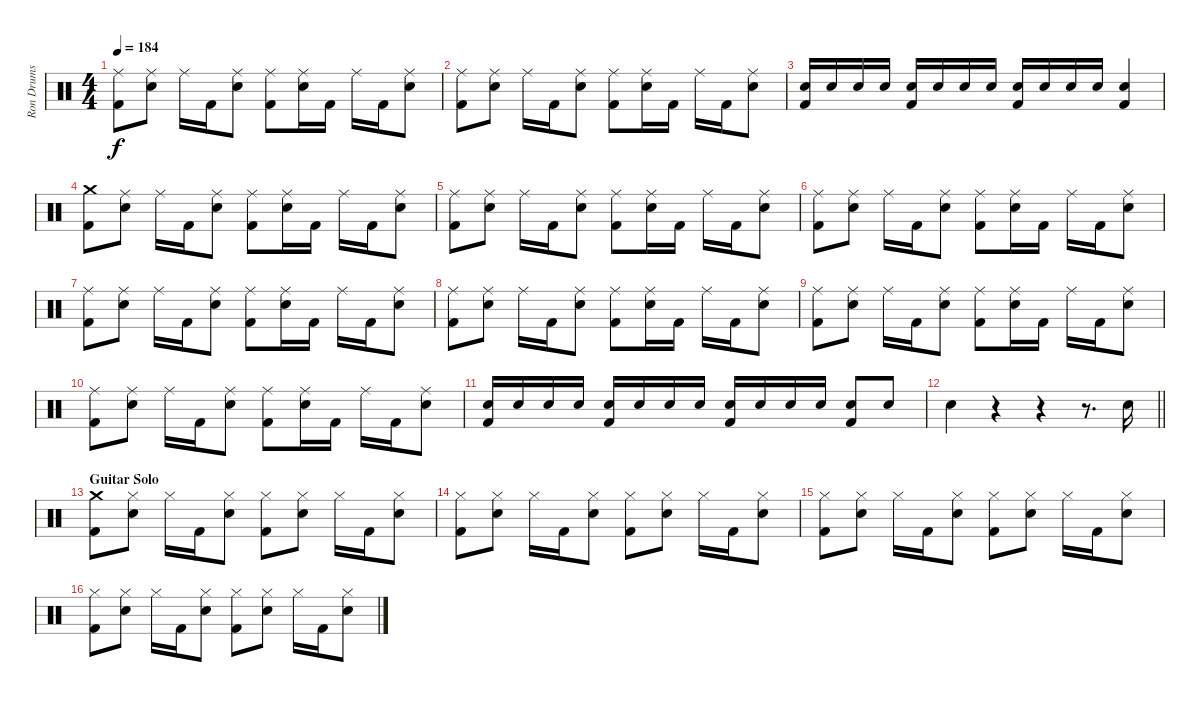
\track ("Ron Drums and Percussion" "Ron Drums ") {instrument percussion}
\staff {score}
\articulation defaults
\ts (4 4)
\tempo 184
\clef neutral
\ks c
("Ride (middle)" "Kick (hit) 2").8{dy f} ("Ride (middle)" "Electric Snare (hit)").8 "Ride (middle)".16 "Kick (hit) 2".16 ("Ride (middle)" "Electric Snare (hit)").8 ("Ride (middle)" "Kick (hit) 2").8 ("Ride (middle)" "Electric Snare (hit)").16 "Kick (hit) 2".16 "Ride (middle)".16 "Kick (hit) 2".16 ("Ride (middle)" "Electric Snare (hit)").8 |
("Ride (middle)" "Kick (hit) 2").8 ("Ride (middle)" "Electric Snare (hit)").8 "Ride (middle)".16 "Kick (hit) 2".16 ("Ride (middle)" "Electric Snare (hit)").8 ("Ride (middle)" "Kick (hit) 2").8 ("Ride (middle)" "Electric Snare (hit)").16 "Kick (hit) 2".16 "Ride (middle)".16 "Kick (hit) 2".16 ("Ride (middle)" "Electric Snare (hit)").8 |
("Electric Snare (hit)" "Kick (hit) 2").16 "Electric Snare (hit)".16 "Electric Snare (hit)".16 "Electric Snare (hit)".16 ("Electric Snare (hit)" "Kick (hit) 2").16 "Electric Snare (hit)".16 "Electric Snare (hit)".16 "Electric Snare (hit)".16 ("Electric Snare (hit)" "Kick (hit) 2").16 "Electric Snare (hit)".16 "Electric Snare (hit)".16 "Electric Snare (hit)".16 ("Electric Snare (hit)" "Kick (hit) 2").4 |
("Crash medium (hit)" "Kick (hit) 2").8 ("Ride (middle)" "Electric Snare (hit)").8 "Ride (middle)".16 "Kick (hit) 2".16 ("Ride (middle)" "Electric Snare (hit)").8 ("Ride (middle)" "Kick (hit) 2").8 ("Ride (middle)" "Electric Snare (hit)").16 "Kick (hit) 2".16 "Ride (middle)".16 "Kick (hit) 2".16 ("Ride (middle)" "Electric Snare (hit)").8 |
("Ride (middle)" "Kick (hit) 2").8 ("Ride (middle)" "Electric Snare (hit)").8 "Ride (middle)".16 "Kick (hit) 2".16 ("Ride (middle)" "Electric Snare (hit)").8 ("Ride (middle)" "Kick (hit) 2").8 ("Ride (middle)" "Electric Snare (hit)").16 "Kick (hit) 2".16 "Ride (middle)".16 "Kick (hit) 2".16 ("Ride (middle)" "Electric Snare (hit)").8 |
("Ride (middle)" "Kick (hit) 2").8 ("Ride (middle)" "Electric Snare (hit)").8 "Ride (middle)".16 "Kick (hit) 2".16 ("Ride (middle)" "Electric Snare (hit)").8 ("Ride (middle)" "Kick (hit) 2").8 ("Ride (middle)" "Electric Snare (hit)").16 "Kick (hit) 2".16 "Ride (middle)".16 "Kick (hit) 2".16 ("Ride (middle)" "Electric Snare (hit)").8 |
("Ride (middle)" "Kick (hit) 2").8 ("Ride (middle)" "Electric Snare (hit)").8 "Ride (middle)".16 "Kick (hit) 2".16 ("Ride (middle)" "Electric Snare (hit)").8 ("Ride (middle)" "Kick (hit) 2").8 ("Ride (middle)" "Electric Snare (hit)").16 "Kick (hit) 2".16 "Ride (middle)".16 "Kick (hit) 2".16 ("Ride (middle)" "Electric Snare (hit)").8 |
("Ride (middle)" "Kick (hit) 2").8 ("Ride (middle)" "Electric Snare (hit)").8 "Ride (middle)".16 "Kick (hit) 2".16 ("Ride (middle)" "Electric Snare (hit)").8 ("Ride (middle)" "Kick (hit) 2").8 ("Ride (middle)" "Electric Snare (hit)").16 "Kick (hit) 2".16 "Ride (middle)".16 "Kick (hit) 2".16 ("Ride (middle)" "Electric Snare (hit)").8 |
("Ride (middle)" "Kick (hit) 2").8 ("Ride (middle)" "Electric Snare (hit)").8 "Ride (middle)".16 "Kick (hit) 2".16 ("Ride (middle)" "Electric Snare (hit)").8 ("Ride (middle)" "Kick (hit) 2").8 ("Ride (middle)" "Electric Snare (hit)").16 "Kick (hit) 2".16 "Ride (middle)".16 "Kick (hit) 2".16 ("Ride (middle)" "Electric Snare (hit)").8 |
("Ride (middle)" "Kick (hit) 2").8 ("Ride (middle)" "Electric Snare (hit)").8 "Ride (middle)".16 "Kick (hit) 2".16 ("Ride (middle)" "Electric Snare (hit)").8 ("Ride (middle)" "Kick (hit) 2").8 ("Ride (middle)" "Electric Snare (hit)").16 "Kick (hit) 2".16 "Ride (middle)".16 "Kick (hit) 2".16 ("Ride (middle)" "Electric Snare (hit)").8 |
("Electric Snare (hit)" "Kick (hit) 2").16 "Electric Snare (hit)".16 "Electric Snare (hit)".16 "Electric Snare (hit)".16 ("Electric Snare (hit)" "Kick (hit) 2").16 "Electric Snare (hit)".16 "Electric Snare (hit)".16 "Electric Snare (hit)".16 ("Electric Snare (hit)" "Kick (hit) 2").16 "Electric Snare (hit)".16 "Electric Snare (hit)".16 "Electric Snare (hit)".16 ("Electric Snare (hit)" "Kick (hit) 2").8 "Electric Snare (hit)".8 |
\barLineRight lightlight "Electric Snare (hit)".4
r.4 r.4 r.8{d} "Electric Snare (hit)".16 |
\section ("" "Guitar Solo")
("Crash medium (hit)" "Kick (hit) 2").8 ("Hi-Hat (closed)" "Electric Snare (hit)").8 "Hi-Hat (closed)".16 "Kick (hit) 2".16 ("Hi-Hat (closed)" "Electric Snare (hit)").8 ("Hi-Hat (closed)" "Kick (hit) 2").8 ("Hi-Hat (closed)" "Electric Snare (hit)").8 "Hi-Hat (closed)".16 "Kick (hit) 2".16 ("Hi-Hat (closed)" "Electric Snare (hit)").8 |
("Hi-Hat (closed)" "Kick (hit) 2").8 ("Hi-Hat (closed)" "Electric Snare (hit)").8 "Hi-Hat (closed)".16 "Kick (hit) 2".16 ("Hi-Hat (closed)" "Electric Snare (hit)").8 ("Hi-Hat (closed)" "Kick (hit) 2").8 ("Hi-Hat (closed)" "Electric Snare (hit)").8 "Hi-Hat (closed)".16 "Kick (hit) 2".16 ("Hi-Hat (closed)" "Electric Snare (hit)").8 |
("Hi-Hat (closed)" "Kick (hit) 2").8 ("Hi-Hat (closed)" "Electric Snare (hit)").8 "Hi-Hat (closed)".16 "Kick (hit) 2".16 ("Hi-Hat (closed)" "Electric Snare (hit)").8 ("Hi-Hat (closed)" "Kick (hit) 2").8 ("Hi-Hat (closed)" "Electric Snare (hit)").8 "Hi-Hat (closed)".16 "Kick (hit) 2".16 ("Hi-Hat (closed)" "Electric Snare (hit)").8 |
("Hi-Hat (closed)" "Kick (hit) 2").8 ("Hi-Hat (closed)" "Electric Snare (hit)").8 "Hi-Hat (closed)".16 "Kick (hit) 2".16 ("Hi-Hat (closed)" "Electric Snare (hit)").8 ("Hi-Hat (closed)" "Kick (hit) 2").8 ("Hi-Hat (closed)" "Electric Snare (hit)").8 "Hi-Hat (closed)".16 "Kick (hit) 2".16 ("Hi-Hat (closed)" "Electric Snare (hit)").8
